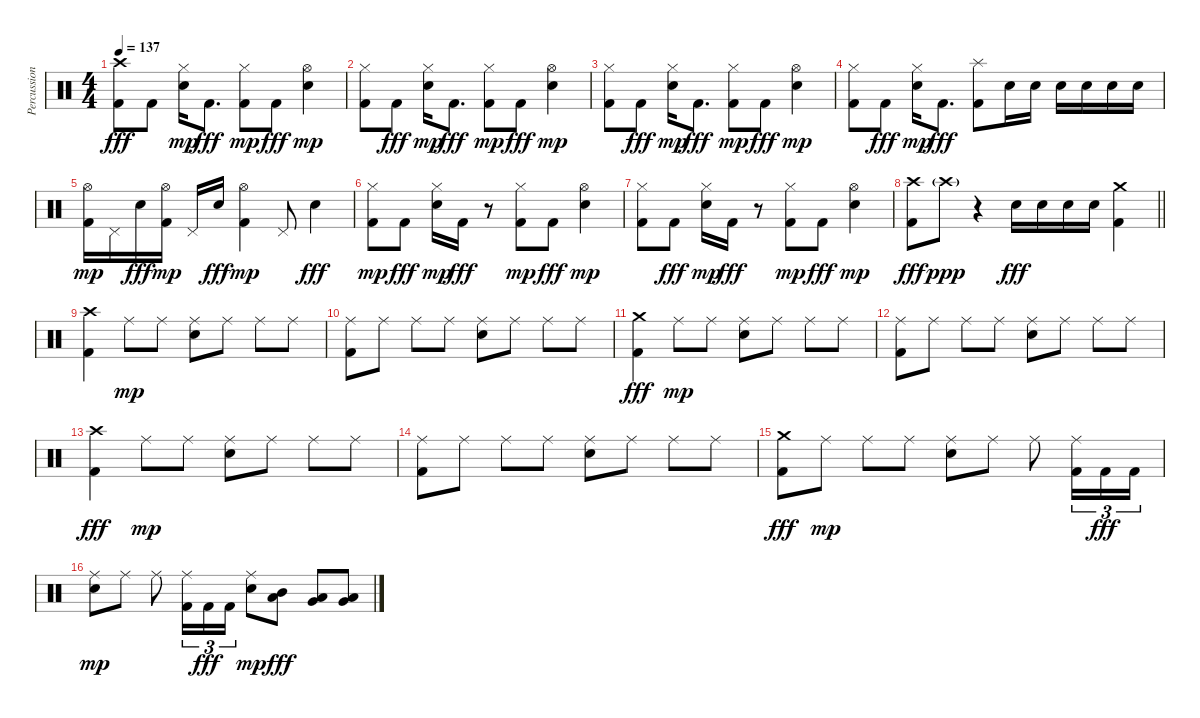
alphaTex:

\track ("Percussion" "Percussion") {instrument percussion}
\staff {score}
\articulation defaults
\ts (4 4)
\tempo 137
\clef neutral
\ks c
("Kick (hit) 2" "Crash high (hit)").8{dy fff} "Kick (hit) 2".8 ("Electric Snare (hit)" "Hi-Hat (closed)").16{dy mp} "Kick (hit) 2".8{d dy fff} ("Kick (hit) 2" "Hi-Hat (closed)").8{dy mp} "Kick (hit) 2".8{dy fff} ("Electric Snare (hit)" "Hi-Hat (open)").4{dy mp} |
("Kick (hit) 2" "Hi-Hat (closed)").8 "Kick (hit) 2".8{dy fff} ("Electric Snare (hit)" "Hi-Hat (closed)").16{dy mp} "Kick (hit) 2".8{d dy fff} ("Kick (hit) 2" "Hi-Hat (closed)").8{dy mp} "Kick (hit) 2".8{dy fff} ("Electric Snare (hit)" "Hi-Hat (open)").4{dy mp} |
("Kick (hit) 2" "Hi-Hat (closed)").8 "Kick (hit) 2".8{dy fff} ("Electric Snare (hit)" "Hi-Hat (closed)").16{dy mp} "Kick (hit) 2".8{d dy fff} ("Kick (hit) 2" "Hi-Hat (closed)").8{dy mp} "Kick (hit) 2".8{dy fff} ("Electric Snare (hit)" "Hi-Hat (open)").4{dy mp} |
("Kick (hit) 2" "Hi-Hat (closed)").8 "Kick (hit) 2".8{dy fff} ("Electric Snare (hit)" "Hi-Hat (closed)").16{dy mp} "Kick (hit) 2".8{d dy fff} ("Kick (hit) 2" "Splash (hit)").8 "Electric Snare (hit)".16 "Electric Snare (hit)".16 "Electric Snare (hit)".16 "Electric Snare (hit)".16 "Electric Snare (hit)".16 "Electric Snare (hit)".16 |
("Kick (hit) 2" "Hi-Hat (open)").16{dy mp} "Pedal Hi-Hat (hit)".16 "Electric Snare (hit)".16{dy fff} ("Kick (hit) 2" "Hi-Hat (open)").16{dy mp} "Pedal Hi-Hat (hit)".16 "Electric Snare (hit)".16{dy fff} ("Kick (hit) 2" "Hi-Hat (open)").4{dy mp} "Pedal Hi-Hat (hit)".8 "Electric Snare (hit)".4{dy fff} |
("Kick (hit) 2" "Hi-Hat (closed)").8{dy mp} "Kick (hit) 2".8{dy fff} ("Electric Snare (hit)" "Hi-Hat (closed)").16{dy mp} "Kick (hit) 2".16{dy fff} r.8 ("Kick (hit) 2" "Hi-Hat (closed)").8{dy mp} "Kick (hit) 2".8{dy fff} ("Electric Snare (hit)" "Hi-Hat (open)").4{dy mp} |
("Kick (hit) 2" "Hi-Hat (closed)").8 "Kick (hit) 2".8{dy fff} ("Electric Snare (hit)" "Hi-Hat (closed)").16{dy mp} "Kick (hit) 2".16{dy fff} r.8 ("Kick (hit) 2" "Hi-Hat (closed)").8{dy mp} "Kick (hit) 2".8{dy fff} ("Electric Snare (hit)" "Hi-Hat (open)").4{dy mp} |
\barLineRight lightlight
("Kick (hit) 2" "Crash high (hit)").8{dy fff} "Crash high (hit)"{g}.8{dy ppp} r.4 "Electric Snare (hit)".16{dy fff} "Electric Snare (hit)".16 "Electric Snare (hit)".16 "Electric Snare (hit)".16 ("Kick (hit) 2" "Crash medium (hit)").4 |
("Kick (hit) 2" "Crash high (hit)").4 "Ride (middle)".8{dy mp} "Ride (middle)".8 ("Electric Snare (hit)" "Ride (middle)").8 "Ride (middle)".8 "Ride (middle)".8 "Ride (middle)".8 |
("Kick (hit) 2" "Ride (middle)").8 "Ride (middle)".8 "Ride (middle)".8 "Ride (middle)".8 ("Electric Snare (hit)" "Ride (middle)").8 "Ride (middle)".8 "Ride (middle)".8 "Ride (middle)".8 |
("Kick (hit) 2" "Crash medium (hit)").4{dy fff} "Ride (middle)".8{dy mp} "Ride (middle)".8 ("Electric Snare (hit)" "Ride (middle)").8 "Ride (middle)".8 "Ride (middle)".8 "Ride (middle)".8 |
("Kick (hit) 2" "Ride (middle)").8 "Ride (middle)".8 "Ride (middle)".8 "Ride (middle)".8 ("Electric Snare (hit)" "Ride (middle)").8 "Ride (middle)".8 "Ride (middle)".8 "Ride (middle)".8 |
("Kick (hit) 2" "Crash high (hit)").4{dy fff} "Ride (middle)".8{dy mp} "Ride (middle)".8 ("Electric Snare (hit)" "Ride (middle)").8 "Ride (middle)".8 "Ride (middle)".8 "Ride (middle)".8 |
("Kick (hit) 2" "Ride (middle)").8 "Ride (middle)".8 "Ride (middle)".8 "Ride (middle)".8 ("Electric Snare (hit)" "Ride (middle)").8 "Ride (middle)".8 "Ride (middle)".8 "Ride (middle)".8 |
("Kick (hit) 2" "Crash medium (hit)").8{dy fff} "Ride (middle)".8{dy mp} "Ride (middle)".8 "Ride (middle)".8 ("Electric Snare (hit)" "Ride (middle)").8 "Ride (middle)".8 "Ride (middle)".8 ("Kick (hit) 2" "Ride (middle)").16{tu (3 2)} "Kick (hit) 2".16{tu (3 2) dy fff} "Kick (hit) 2".16{tu (3 2)} |
("Electric Snare (hit)" "Ride (middle)").8{dy mp} "Ride (middle)".8 "Ride (middle)".8 ("Kick (hit) 2" "Ride (middle)").16{tu (3 2)} "Kick (hit) 2".16{tu (3 2) dy fff} "Kick (hit) 2".16{tu (3 2)} ("Electric Snare (hit)" "Ride (middle)").8{dy mp} ("Low Tom (hit)" "Mid Tom (hit)").8{dy fff} ("Very Low Tom (hit)" "Low Tom (hit)").8 ("Low Floor Tom (hit)" "Very Low Tom (hit)").8
